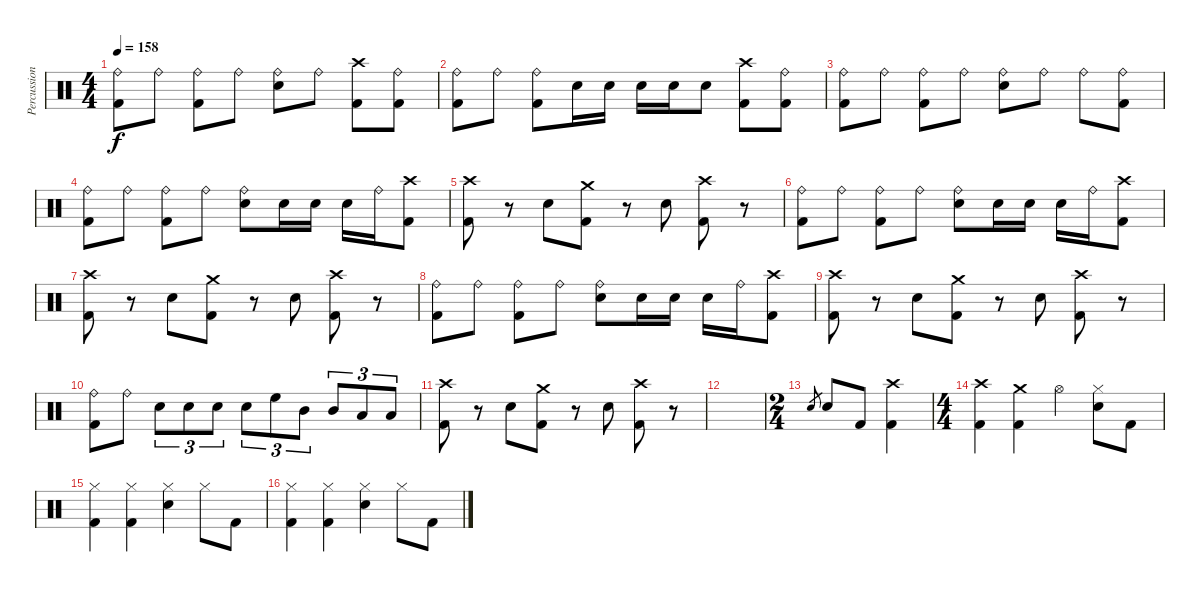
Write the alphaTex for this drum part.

\track ("Percussions" "Percussion") {instrument percussion}
\staff {score}
\articulation defaults
\ts (4 4)
\tempo 158
\clef neutral
\ks c
("Ride (bell)" "Kick (hit) 2").8{dy f} "Ride (bell)".8 ("Ride (bell)" "Kick (hit) 2").8 "Ride (bell)".8 ("Ride (bell)" "Snare (hit) 2").8 "Ride (bell)".8 ("Crash high (hit)" "Kick (hit) 2").8 ("Ride (bell)" "Kick (hit) 2").8 |
("Ride (bell)" "Kick (hit) 2").8 "Ride (bell)".8 ("Ride (bell)" "Kick (hit) 2").8 "Snare (hit) 2".16 "Snare (hit) 2".16 "Snare (hit) 2".16 "Snare (hit) 2".16 "Snare (hit) 2".8 ("Crash high (hit)" "Kick (hit) 2").8 ("Ride (bell)" "Kick (hit) 2").8 |
("Ride (bell)" "Kick (hit) 2").8 "Ride (bell)".8 ("Ride (bell)" "Kick (hit) 2").8 "Ride (bell)".8 ("Ride (bell)" "Snare (hit) 2").8 "Ride (bell)".8 "Ride (bell)".8 ("Ride (bell)" "Kick (hit) 2").8 |
("Ride (bell)" "Kick (hit) 2").8 "Ride (bell)".8 ("Ride (bell)" "Kick (hit) 2").8 "Ride (bell)".8 ("Ride (bell)" "Snare (hit) 2").8 "Snare (hit) 2".16 "Snare (hit) 2".16 "Snare (hit) 2".16 "Ride (bell)".16 ("Crash high (hit)" "Kick (hit) 2").8 |
("Crash high (hit)" "Kick (hit) 2").8 r.8 "Snare (hit) 2".8 ("Crash medium (hit)" "Kick (hit) 2").8 r.8 "Snare (hit) 2".8 ("Crash high (hit)" "Kick (hit) 2").8 r.8 |
("Ride (bell)" "Kick (hit) 2").8 "Ride (bell)".8 ("Ride (bell)" "Kick (hit) 2").8 "Ride (bell)".8 ("Ride (bell)" "Snare (hit) 2").8 "Snare (hit) 2".16 "Snare (hit) 2".16 "Snare (hit) 2".16 "Ride (bell)".16 ("Crash high (hit)" "Kick (hit) 2").8 |
("Crash high (hit)" "Kick (hit) 2").8 r.8 "Snare (hit) 2".8 ("Crash medium (hit)" "Kick (hit) 2").8 r.8 "Snare (hit) 2".8 ("Crash high (hit)" "Kick (hit) 2").8 r.8 |
("Ride (bell)" "Kick (hit) 2").8 "Ride (bell)".8 ("Ride (bell)" "Kick (hit) 2").8 "Ride (bell)".8 ("Ride (bell)" "Snare (hit) 2").8 "Snare (hit) 2".16 "Snare (hit) 2".16 "Snare (hit) 2".16 "Ride (bell)".16 ("Crash high (hit)" "Kick (hit) 2").8 |
("Crash high (hit)" "Kick (hit) 2").8 r.8 "Snare (hit) 2".8 ("Crash medium (hit)" "Kick (hit) 2").8 r.8 "Snare (hit) 2".8 ("Crash high (hit)" "Kick (hit) 2").8 r.8 |
("Ride (bell)" "Kick (hit) 2").8 "Ride (bell)".8 "Snare (hit) 2".8{tu (3 2)} "Snare (hit) 2".8{tu (3 2)} "Snare (hit) 2".8{tu (3 2)} "Snare (hit) 2".8{tu (3 2)} "High Floor Tom (hit)".8{tu (3 2)} "Mid Tom (hit)".8{tu (3 2)} "Mid Tom (hit)".8{tu (3 2)} "Low Tom (hit)".8{tu (3 2)} "Low Floor Tom (hit)".8{tu (3 2)} |
("Crash high (hit)" "Kick (hit) 2").8 r.8 "Snare (hit) 2".8 ("Crash medium (hit)" "Kick (hit) 2").8 r.8 "Snare (hit) 2".8 ("Crash high (hit)" "Kick (hit) 2").8 r.8 |
|
\ts (2 4)
"Snare (hit) 2".8{gr} "Snare (hit) 2".8 "Kick (hit) 2".8 ("Crash high (hit)" "Kick (hit) 2").4 |
\ts (4 4)
("Crash high (hit)" "Kick (hit) 2").4 ("Crash medium (hit)" "Kick (hit) 2").4 "Hi-Hat (open)".4 ("Hi-Hat (closed)" "Snare (hit) 2").8 "Kick (hit) 2".8 |
("Hi-Hat (closed)" "Kick (hit) 2").4 ("Hi-Hat (closed)" "Kick (hit) 2").4 ("Hi-Hat (closed)" "Snare (hit) 2").4 "Hi-Hat (closed)".8 "Kick (hit) 2".8 |
("Hi-Hat (closed)" "Kick (hit) 2").4 ("Hi-Hat (closed)" "Kick (hit) 2").4 ("Hi-Hat (closed)" "Snare (hit) 2").4 "Hi-Hat (closed)".8 "Kick (hit) 2".8
